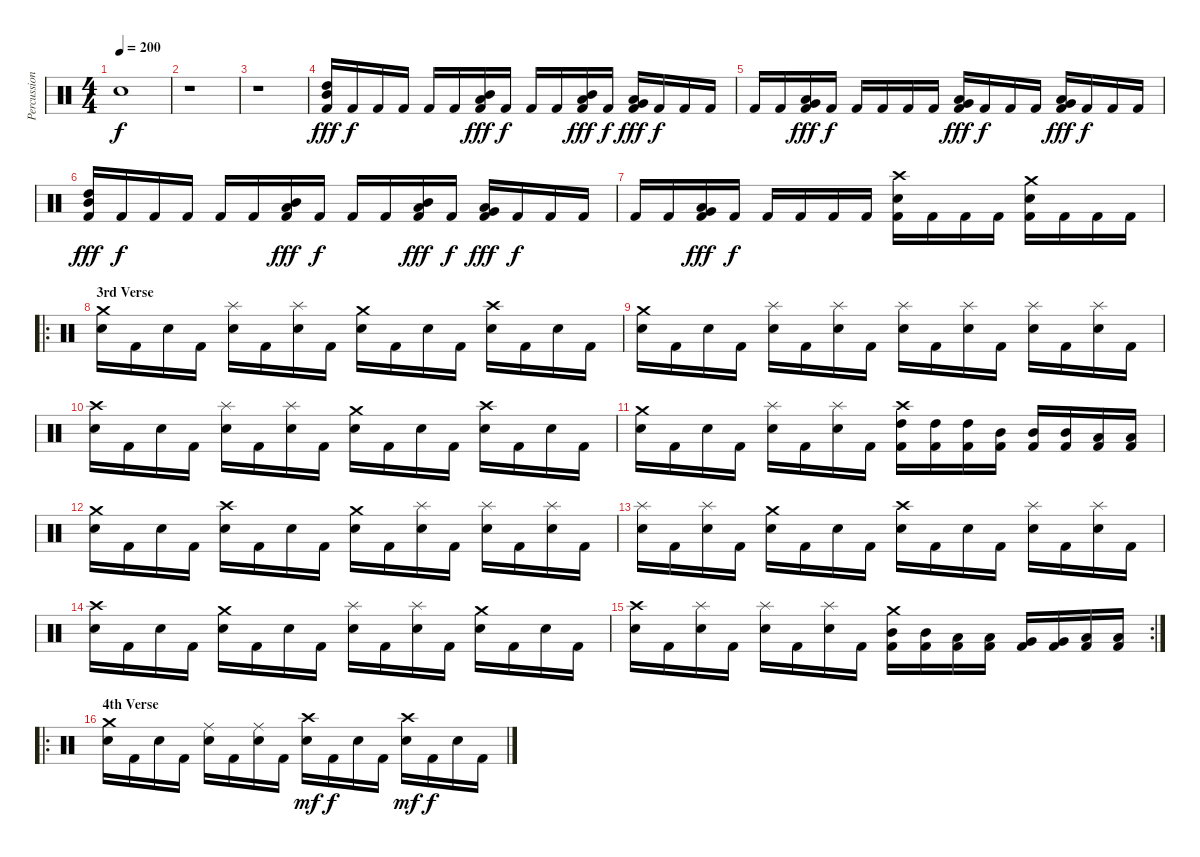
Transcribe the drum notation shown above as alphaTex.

\track ("Percussion" "Percussion") {instrument percussion}
\staff {score}
\articulation defaults
\ts (4 4)
\tempo 200
\clef neutral
\ks c "Snare (hit)"{t}.1{dy f}
|
r.1 |
r.1 |
("Kick (hit) 2" "Mid Tom (hit)" "High Tom (hit)").16{dy fff} "Kick (hit) 2".16{dy f} "Kick (hit) 2".16 "Kick (hit) 2".16 "Kick (hit) 2".16 "Kick (hit) 2".16 ("Kick (hit) 2" "Low Tom (hit)" "Mid Tom (hit)").16{dy fff} "Kick (hit) 2".16{dy f} "Kick (hit) 2".16 "Kick (hit) 2".16 ("Kick (hit) 2" "Low Tom (hit)" "Mid Tom (hit)").16{dy fff} "Kick (hit) 2".16{dy f} ("Kick (hit) 2" "Very Low Tom (hit)" "Low Tom (hit)").16{dy fff} "Kick (hit) 2".16{dy f} "Kick (hit) 2".16 "Kick (hit) 2".16 |
"Kick (hit) 2".16 "Kick (hit) 2".16 ("Kick (hit) 2" "Low Floor Tom (hit)" "Very Low Tom (hit)").16{dy fff} "Kick (hit) 2".16{dy f} "Kick (hit) 2".16 "Kick (hit) 2".16 "Kick (hit) 2".16 "Kick (hit) 2".16 ("Kick (hit) 2" "Low Floor Tom (hit)" "Very Low Tom (hit)").16{dy fff} "Kick (hit) 2".16{dy f} "Kick (hit) 2".16 "Kick (hit) 2".16 ("Kick (hit) 2" "Low Floor Tom (hit)" "Very Low Tom (hit)").16{dy fff} "Kick (hit) 2".16{dy f} "Kick (hit) 2".16 "Kick (hit) 2".16 |
("Kick (hit) 2" "Mid Tom (hit)" "High Tom (hit)").16{dy fff} "Kick (hit) 2".16{dy f} "Kick (hit) 2".16 "Kick (hit) 2".16 "Kick (hit) 2".16 "Kick (hit) 2".16 ("Kick (hit) 2" "Low Tom (hit)" "Mid Tom (hit)").16{dy fff} "Kick (hit) 2".16{dy f} "Kick (hit) 2".16 "Kick (hit) 2".16 ("Kick (hit) 2" "Low Tom (hit)" "Mid Tom (hit)").16{dy fff} "Kick (hit) 2".16{dy f} ("Kick (hit) 2" "Very Low Tom (hit)" "Low Tom (hit)").16{dy fff} "Kick (hit) 2".16{dy f} "Kick (hit) 2".16 "Kick (hit) 2".16 |
"Kick (hit) 2".16 "Kick (hit) 2".16 ("Kick (hit) 2" "Low Floor Tom (hit)" "Very Low Tom (hit)").16{dy fff} "Kick (hit) 2".16{dy f} "Kick (hit) 2".16 "Kick (hit) 2".16 "Kick (hit) 2".16 "Kick (hit) 2".16 ("Kick (hit) 2" "Snare (hit) 2" "Crash high (hit)").16 "Kick (hit) 2".16 "Kick (hit) 2".16 "Kick (hit) 2".16 ("Kick (hit) 2" "Snare (hit) 2" "Crash medium (hit)").16 "Kick (hit) 2".16 "Kick (hit) 2".16 "Kick (hit) 2".16 |
\ro
\section ("" "3rd Verse")
("Snare (hit) 2" "Crash medium (hit)").16 "Kick (hit) 2".16 "Snare (hit) 2".16 "Kick (hit) 2".16 ("Snare (hit) 2" "Splash (hit)").16 "Kick (hit) 2".16 ("Snare (hit) 2" "Splash (hit)").16 "Kick (hit) 2".16 ("Snare (hit) 2" "Crash medium (hit)").16 "Kick (hit) 2".16 "Snare (hit) 2".16 "Kick (hit) 2".16 ("Snare (hit) 2" "Crash high (hit)").16 "Kick (hit) 2".16 "Snare (hit) 2".16 "Kick (hit) 2".16 |
("Snare (hit) 2" "Crash medium (hit)").16 "Kick (hit) 2".16 "Snare (hit) 2".16 "Kick (hit) 2".16 ("Snare (hit) 2" "Splash (hit)").16 "Kick (hit) 2".16 ("Snare (hit) 2" "Splash (hit)").16 "Kick (hit) 2".16 ("Snare (hit) 2" "Splash (hit)").16 "Kick (hit) 2".16 ("Snare (hit) 2" "Splash (hit)").16 "Kick (hit) 2".16 ("Snare (hit) 2" "Splash (hit)").16 "Kick (hit) 2".16 ("Snare (hit) 2" "Splash (hit)").16 "Kick (hit) 2".16 |
("Snare (hit) 2" "Crash high (hit)").16 "Kick (hit) 2".16 "Snare (hit) 2".16 "Kick (hit) 2".16 ("Snare (hit) 2" "Splash (hit)").16 "Kick (hit) 2".16 ("Snare (hit) 2" "Splash (hit)").16 "Kick (hit) 2".16 ("Snare (hit) 2" "Crash medium (hit)").16 "Kick (hit) 2".16 "Snare (hit) 2".16 "Kick (hit) 2".16 ("Snare (hit) 2" "Crash high (hit)").16 "Kick (hit) 2".16 "Snare (hit) 2".16 "Kick (hit) 2".16 |
("Snare (hit) 2" "Crash medium (hit)").16 "Kick (hit) 2".16 "Snare (hit) 2".16 "Kick (hit) 2".16 ("Snare (hit) 2" "Splash (hit)").16 "Kick (hit) 2".16 ("Snare (hit) 2" "Splash (hit)").16 "Kick (hit) 2".16 ("Kick (hit) 2" "High Tom (hit)" "Crash high (hit)").16 ("Kick (hit) 2" "High Tom (hit)").16 ("Kick (hit) 2" "High Tom (hit)").16 ("Kick (hit) 2" "Mid Tom (hit)").16 ("Kick (hit) 2" "Mid Tom (hit)").16 ("Kick (hit) 2" "Mid Tom (hit)").16 ("Kick (hit) 2" "Low Tom (hit)").16 ("Kick (hit) 2" "Low Tom (hit)").16 |
("Snare (hit) 2" "Crash medium (hit)").16 "Kick (hit) 2".16 "Snare (hit) 2".16 "Kick (hit) 2".16 ("Snare (hit) 2" "Crash high (hit)").16 "Kick (hit) 2".16 "Snare (hit) 2".16 "Kick (hit) 2".16 ("Snare (hit) 2" "Crash medium (hit)").16 "Kick (hit) 2".16 ("Snare (hit) 2" "Splash (hit)").16 "Kick (hit) 2".16 ("Snare (hit) 2" "Splash (hit)").16 "Kick (hit) 2".16 ("Snare (hit) 2" "Splash (hit)").16 "Kick (hit) 2".16 |
("Snare (hit) 2" "Splash (hit)").16 "Kick (hit) 2".16 ("Snare (hit) 2" "Splash (hit)").16 "Kick (hit) 2".16 ("Snare (hit) 2" "Crash medium (hit)").16 "Kick (hit) 2".16 "Snare (hit) 2".16 "Kick (hit) 2".16 ("Snare (hit) 2" "Crash high (hit)").16 "Kick (hit) 2".16 "Snare (hit) 2".16 "Kick (hit) 2".16 ("Snare (hit) 2" "Splash (hit)").16 "Kick (hit) 2".16 ("Snare (hit) 2" "Splash (hit)").16 "Kick (hit) 2".16 |
("Snare (hit) 2" "Crash high (hit)").16 "Kick (hit) 2".16 "Snare (hit) 2".16 "Kick (hit) 2".16 ("Snare (hit) 2" "Crash medium (hit)").16 "Kick (hit) 2".16 "Snare (hit) 2".16 "Kick (hit) 2".16 ("Snare (hit) 2" "Splash (hit)").16 "Kick (hit) 2".16 ("Snare (hit) 2" "Splash (hit)").16 "Kick (hit) 2".16 ("Snare (hit) 2" "Crash medium (hit)").16 "Kick (hit) 2".16 "Snare (hit) 2".16 "Kick (hit) 2".16 |
\rc 2
("Snare (hit) 2" "Crash high (hit)").16 "Kick (hit) 2".16 ("Snare (hit) 2" "Splash (hit)").16 "Kick (hit) 2".16 ("Snare (hit) 2" "Splash (hit)").16 "Kick (hit) 2".16 ("Snare (hit) 2" "Splash (hit)").16 "Kick (hit) 2".16 ("Kick (hit) 2" "Mid Tom (hit)" "Crash medium (hit)").16 ("Kick (hit) 2" "Mid Tom (hit)").16 ("Kick (hit) 2" "Low Tom (hit)").16 ("Kick (hit) 2" "Low Tom (hit)").16 ("Kick (hit) 2" "Very Low Tom (hit)").16 ("Kick (hit) 2" "Very Low Tom (hit)").16 ("Kick (hit) 2" "Low Floor Tom (hit)").16 ("Kick (hit) 2" "Low Floor Tom (hit)").16 |
\ro
\section ("" "4th Verse")
("Snare (hit) 2" "Crash medium (hit)").16 "Kick (hit) 2".16 "Snare (hit) 2".16 "Kick (hit) 2".16 ("Snare (hit) 2" "Ride (middle)").16 "Kick (hit) 2".16 ("Snare (hit) 2" "Ride (middle)").16 "Kick (hit) 2".16 ("Snare (hit) 2" "Crash high (hit)").16{dy mf} "Kick (hit) 2".16{dy f} "Snare (hit) 2".16 "Kick (hit) 2".16 ("Snare (hit) 2" "Crash high (hit)").16{dy mf} "Kick (hit) 2".16{dy f} "Snare (hit) 2".16 "Kick (hit) 2".16
